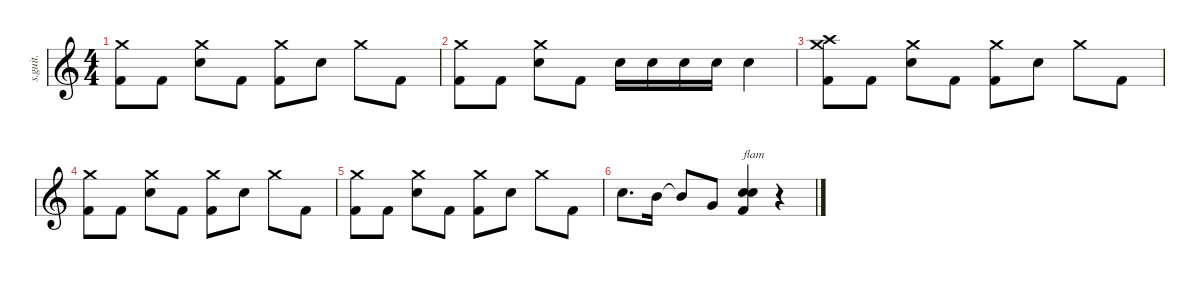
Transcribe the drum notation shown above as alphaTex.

\defaultSystemsLayout 4
\hideDynamics
\bracketExtendMode nobrackets
\track ("Zac Farro | Drums" "s.guit.") {instrument percussion}
\staff {score}
\articulation defaults
\ts (4 4)
\tempo (173 hide)
\clef g2
\ks c
("Crash medium (hit)" "Kick (hit) 2").8{lyrics (0 "") lyrics (1 "") lyrics (2 "") lyrics (3 "") lyrics (4 "") dy f} "Kick (hit) 2".8{lyrics (0 "") lyrics (1 "") lyrics (2 "") lyrics (3 "") lyrics (4 "")} ("Crash medium (hit)" "Electric Snare (hit)").8{lyrics (0 "") lyrics (1 "") lyrics (2 "") lyrics (3 "") lyrics (4 "")} "Kick (hit) 2".8{lyrics (0 "") lyrics (1 "") lyrics (2 "") lyrics (3 "") lyrics (4 "")} ("Crash medium (hit)" "Kick (hit) 2").8{lyrics (0 "") lyrics (1 "") lyrics (2 "") lyrics (3 "") lyrics (4 "")} "Electric Snare (hit)".8{lyrics (0 "") lyrics (1 "") lyrics (2 "") lyrics (3 "") lyrics (4 "")} "Crash medium (hit)".8{lyrics (0 "") lyrics (1 "") lyrics (2 "") lyrics (3 "") lyrics (4 "")} "Kick (hit) 2".8{lyrics (0 "") lyrics (1 "") lyrics (2 "") lyrics (3 "") lyrics (4 "")} |
("Crash medium (hit)" "Kick (hit) 2").8{lyrics (0 "") lyrics (1 "") lyrics (2 "") lyrics (3 "") lyrics (4 "")} "Kick (hit) 2".8{lyrics (0 "") lyrics (1 "") lyrics (2 "") lyrics (3 "") lyrics (4 "")} ("Crash medium (hit)" "Electric Snare (hit)").8{lyrics (0 "") lyrics (1 "") lyrics (2 "") lyrics (3 "") lyrics (4 "")} "Kick (hit) 2".8{lyrics (0 "") lyrics (1 "") lyrics (2 "") lyrics (3 "") lyrics (4 "")} "Electric Snare (hit)".16{lyrics (0 "") lyrics (1 "") lyrics (2 "") lyrics (3 "") lyrics (4 "")} "Electric Snare (hit)".16{lyrics (0 "") lyrics (1 "") lyrics (2 "") lyrics (3 "") lyrics (4 "")} "Electric Snare (hit)".16{lyrics (0 "") lyrics (1 "") lyrics (2 "") lyrics (3 "") lyrics (4 "")} "Electric Snare (hit)".16{lyrics (0 "") lyrics (1 "") lyrics (2 "") lyrics (3 "") lyrics (4 "")} "Electric Snare (hit)".4{lyrics (0 "") lyrics (1 "") lyrics (2 "") lyrics (3 "") lyrics (4 "")} |
("Crash high (hit)" "Crash medium (hit)" "Kick (hit) 2").8{lyrics (0 "") lyrics (1 "") lyrics (2 "") lyrics (3 "") lyrics (4 "")} "Kick (hit) 2".8{lyrics (0 "") lyrics (1 "") lyrics (2 "") lyrics (3 "") lyrics (4 "")} ("Crash medium (hit)" "Electric Snare (hit)").8{lyrics (0 "") lyrics (1 "") lyrics (2 "") lyrics (3 "") lyrics (4 "")} "Kick (hit) 2".8{lyrics (0 "") lyrics (1 "") lyrics (2 "") lyrics (3 "") lyrics (4 "")} ("Crash medium (hit)" "Kick (hit) 2").8{lyrics (0 "") lyrics (1 "") lyrics (2 "") lyrics (3 "") lyrics (4 "")} "Electric Snare (hit)".8{lyrics (0 "") lyrics (1 "") lyrics (2 "") lyrics (3 "") lyrics (4 "")} "Crash medium (hit)".8{lyrics (0 "") lyrics (1 "") lyrics (2 "") lyrics (3 "") lyrics (4 "")} "Kick (hit) 2".8{lyrics (0 "") lyrics (1 "") lyrics (2 "") lyrics (3 "") lyrics (4 "")} |
("Crash medium (hit)" "Kick (hit) 2").8{lyrics (0 "") lyrics (1 "") lyrics (2 "") lyrics (3 "") lyrics (4 "")} "Kick (hit) 2".8{lyrics (0 "") lyrics (1 "") lyrics (2 "") lyrics (3 "") lyrics (4 "")} ("Crash medium (hit)" "Electric Snare (hit)").8{lyrics (0 "") lyrics (1 "") lyrics (2 "") lyrics (3 "") lyrics (4 "")} "Kick (hit) 2".8{lyrics (0 "") lyrics (1 "") lyrics (2 "") lyrics (3 "") lyrics (4 "")} ("Crash medium (hit)" "Kick (hit) 2").8{lyrics (0 "") lyrics (1 "") lyrics (2 "") lyrics (3 "") lyrics (4 "")} "Electric Snare (hit)".8{lyrics (0 "") lyrics (1 "") lyrics (2 "") lyrics (3 "") lyrics (4 "")} "Crash medium (hit)".8{lyrics (0 "") lyrics (1 "") lyrics (2 "") lyrics (3 "") lyrics (4 "")} "Kick (hit) 2".8{lyrics (0 "") lyrics (1 "") lyrics (2 "") lyrics (3 "") lyrics (4 "")} |
("Crash medium (hit)" "Kick (hit) 2").8{lyrics (0 "") lyrics (1 "") lyrics (2 "") lyrics (3 "") lyrics (4 "")} "Kick (hit) 2".8{lyrics (0 "") lyrics (1 "") lyrics (2 "") lyrics (3 "") lyrics (4 "")} ("Crash medium (hit)" "Electric Snare (hit)").8{lyrics (0 "") lyrics (1 "") lyrics (2 "") lyrics (3 "") lyrics (4 "")} "Kick (hit) 2".8{lyrics (0 "") lyrics (1 "") lyrics (2 "") lyrics (3 "") lyrics (4 "")} ("Crash medium (hit)" "Kick (hit) 2").8{lyrics (0 "") lyrics (1 "") lyrics (2 "") lyrics (3 "") lyrics (4 "")} "Electric Snare (hit)".8{lyrics (0 "") lyrics (1 "") lyrics (2 "") lyrics (3 "") lyrics (4 "")} "Crash medium (hit)".8{lyrics (0 "") lyrics (1 "") lyrics (2 "") lyrics (3 "") lyrics (4 "")} "Kick (hit) 2".8{lyrics (0 "") lyrics (1 "") lyrics (2 "") lyrics (3 "") lyrics (4 "")} |
"Electric Snare (hit)".8{d lyrics (0 "") lyrics (1 "") lyrics (2 "") lyrics (3 "") lyrics (4 "")} "Mid Tom (hit)".16{lyrics (0 "") lyrics (1 "") lyrics (2 "") lyrics (3 "") lyrics (4 "")} "Mid Tom (hit)"{t}.8{lyrics (0 "") lyrics (1 "") lyrics (2 "") lyrics (3 "") lyrics (4 "")} "Very Low Tom (hit)".8{lyrics (0 "") lyrics (1 "") lyrics (2 "") lyrics (3 "") lyrics (4 "")} ("Electric Snare (hit)" "Electric Snare (hit)" "Kick (hit) 2").4{bd 30 txt "flam" lyrics (0 "") lyrics (1 "") lyrics (2 "") lyrics (3 "") lyrics (4 "")} r.4
